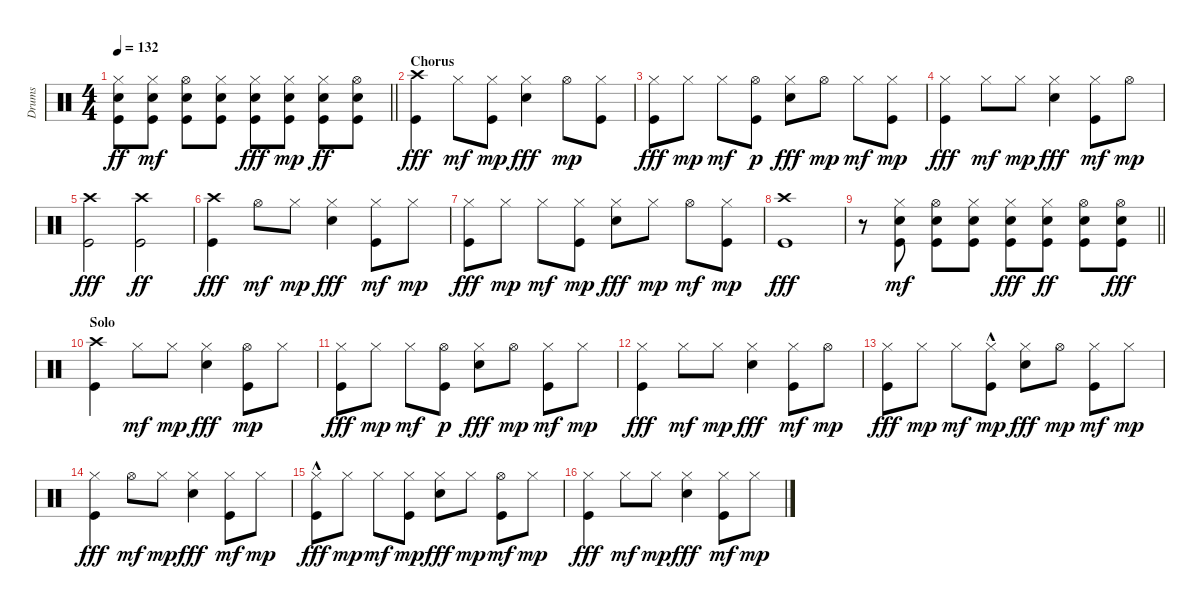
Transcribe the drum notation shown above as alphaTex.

\track ("Drums" "Drums") {instrument percussion}
\staff {score}
\articulation defaults
\ts (4 4)
\tempo 132
\clef neutral
\barLineRight lightlight
\ks c
("Hi-Hat (closed)" "Snare (hit) 2" "Kick (hit)").8{dy ff} ("Hi-Hat (closed)" "Snare (hit) 2" "Kick (hit)").8{dy mf} ("Hi-Hat (open)" "Snare (hit) 2" "Kick (hit)").8 ("Hi-Hat (closed)" "Snare (hit) 2" "Kick (hit)").8 ("Hi-Hat (closed)" "Snare (hit) 2" "Kick (hit)").8{dy fff} ("Hi-Hat (closed)" "Snare (hit) 2" "Kick (hit)").8{dy mp} ("Hi-Hat (closed)" "Snare (hit) 2" "Kick (hit)").8{dy ff} ("Hi-Hat (open)" "Snare (hit) 2" "Kick (hit)").8 |
\section ("" "Chorus")
("Crash high (hit)" "Kick (hit)").4{dy fff} "Hi-Hat (closed)".8{dy mf} ("Hi-Hat (closed)" "Kick (hit)").8{dy mp} ("Hi-Hat (closed)" "Snare (hit) 2").4{dy fff} "Hi-Hat (open)".8{dy mp} ("Hi-Hat (closed)" "Kick (hit)").8 |
("Hi-Hat (closed)" "Kick (hit)").8{dy fff} "Hi-Hat (closed)".8{dy mp} "Hi-Hat (closed)".8{dy mf} ("Hi-Hat (open)" "Kick (hit)").8{dy p} ("Hi-Hat (closed)" "Snare (hit) 2").8{dy fff} "Hi-Hat (open)".8{dy mp} "Hi-Hat (closed)".8{dy mf} ("Hi-Hat (closed)" "Kick (hit)").8{dy mp} |
("Hi-Hat (closed)" "Kick (hit)").4{dy fff} "Hi-Hat (closed)".8{dy mf} "Hi-Hat (closed)".8{dy mp} ("Hi-Hat (closed)" "Snare (hit) 2").4{dy fff} ("Hi-Hat (closed)" "Kick (hit)").8{dy mf} "Hi-Hat (open)".8{dy mp} |
("Crash high (hit)" "Kick (hit)").2{dy fff} ("Crash high (hit)" "Kick (hit)").2{dy ff} |
("Crash high (hit)" "Kick (hit)").4{dy fff} "Hi-Hat (open)".8{dy mf} "Hi-Hat (closed)".8{dy mp} ("Hi-Hat (closed)" "Snare (hit) 2").4{dy fff} ("Hi-Hat (closed)" "Kick (hit)").8{dy mf} "Hi-Hat (closed)".8{dy mp} |
("Hi-Hat (closed)" "Kick (hit)").8{dy fff} "Hi-Hat (closed)".8{dy mp} "Hi-Hat (closed)".8{dy mf} ("Hi-Hat (closed)" "Kick (hit)").8{dy mp} ("Hi-Hat (closed)" "Snare (hit) 2").8{dy fff} "Hi-Hat (closed)".8{dy mp} "Hi-Hat (open)".8{dy mf} ("Hi-Hat (closed)" "Kick (hit)").8{dy mp} |
("Kick (hit)" "Crash high (hit)").1{dy fff} |
\barLineRight lightlight
r.8 ("Hi-Hat (closed)" "Snare (hit) 2" "Kick (hit)").8{dy mf} ("Hi-Hat (open)" "Snare (hit) 2" "Kick (hit)").8 ("Hi-Hat (closed)" "Snare (hit) 2" "Kick (hit)").8 ("Hi-Hat (closed)" "Snare (hit) 2" "Kick (hit)").8{dy fff} ("Hi-Hat (closed)" "Snare (hit) 2" "Kick (hit)").8{dy ff} ("Hi-Hat (open)" "Snare (hit) 2" "Kick (hit)").8 ("Hi-Hat (open)" "Snare (hit) 2" "Kick (hit)").8{dy fff} |
\section ("" "Solo")
("Crash high (hit)" "Kick (hit)").4 "Hi-Hat (closed)".8{dy mf} "Hi-Hat (closed)".8{dy mp} ("Hi-Hat (closed)" "Snare (hit) 2").4{dy fff} ("Hi-Hat (open)" "Kick (hit)").8{dy mp} "Hi-Hat (closed)".8 |
("Hi-Hat (closed)" "Kick (hit)").8{dy fff} "Hi-Hat (closed)".8{dy mp} "Hi-Hat (closed)".8{dy mf} ("Hi-Hat (open)" "Kick (hit)").8{dy p} ("Hi-Hat (closed)" "Snare (hit) 2").8{dy fff} "Hi-Hat (open)".8{dy mp} ("Hi-Hat (closed)" "Kick (hit)").8{dy mf} "Hi-Hat (closed)".8{dy mp} |
("Hi-Hat (closed)" "Kick (hit)").4{dy fff} "Hi-Hat (closed)".8{dy mf} "Hi-Hat (closed)".8{dy mp} ("Hi-Hat (closed)" "Snare (hit) 2").4{dy fff} ("Hi-Hat (closed)" "Kick (hit)").8{dy mf} "Hi-Hat (open)".8{dy mp} |
("Hi-Hat (closed)" "Kick (hit)").8{dy fff} "Hi-Hat (closed)".8{dy mp} "Hi-Hat (closed)".8{dy mf} ("Hi-Hat (closed)" "Kick (hit)"{hac}).8{dy mp} ("Hi-Hat (closed)" "Snare (hit) 2").8{dy fff} "Hi-Hat (open)".8{dy mp} ("Hi-Hat (closed)" "Kick (hit)").8{dy mf} "Hi-Hat (closed)".8{dy mp} |
("Hi-Hat (closed)" "Kick (hit)").4{dy fff} "Hi-Hat (open)".8{dy mf} "Hi-Hat (closed)".8{dy mp} ("Hi-Hat (closed)" "Snare (hit) 2").4{dy fff} ("Hi-Hat (closed)" "Kick (hit)").8{dy mf} "Hi-Hat (closed)".8{dy mp} |
("Hi-Hat (closed)" "Kick (hit)"{hac}).8{dy fff} "Hi-Hat (closed)".8{dy mp} "Hi-Hat (closed)".8{dy mf} ("Hi-Hat (closed)" "Kick (hit)").8{dy mp} ("Hi-Hat (closed)" "Snare (hit) 2").8{dy fff} "Hi-Hat (closed)".8{dy mp} ("Hi-Hat (open)" "Kick (hit)").8{dy mf} "Hi-Hat (closed)".8{dy mp} |
("Hi-Hat (closed)" "Kick (hit)").4{dy fff} "Hi-Hat (closed)".8{dy mf} "Hi-Hat (closed)".8{dy mp} ("Hi-Hat (closed)" "Snare (hit) 2").4{dy fff} ("Hi-Hat (closed)" "Kick (hit)").8{dy mf} "Hi-Hat (closed)".8{dy mp}
